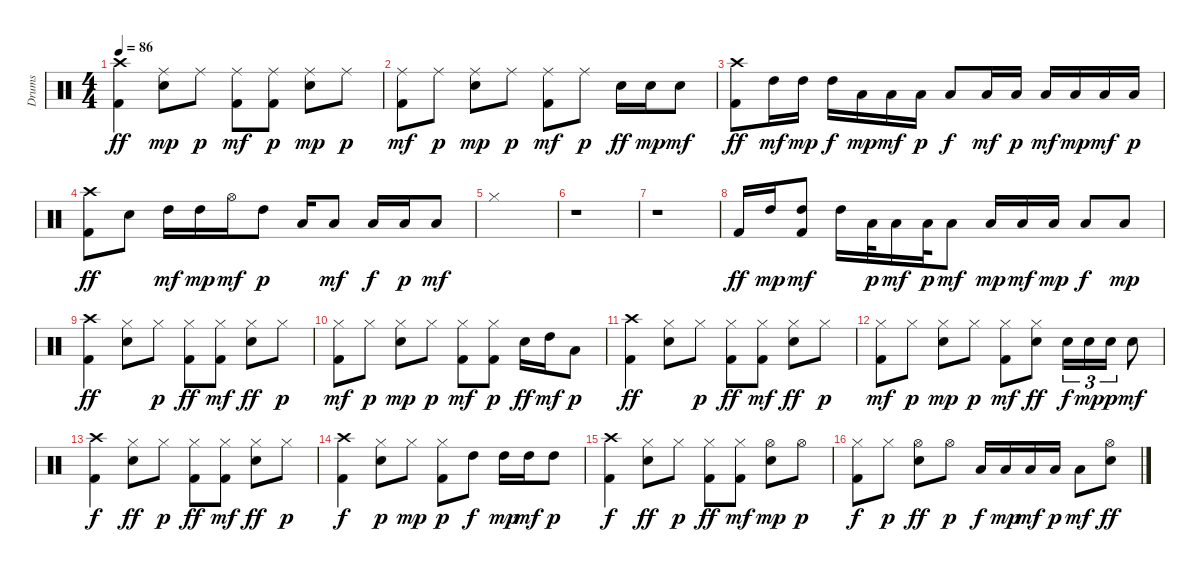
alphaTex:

\track ("Drums" "Drums") {instrument percussion}
\staff {score}
\articulation defaults
\ts (4 4)
\tempo 86
\clef neutral
\ks c
("Kick (hit) 2" "Crash high (hit)").4{dy ff} ("Snare (hit) 2" "Ride (middle)").8{dy mp} "Ride (middle)".8{dy p} ("Kick (hit) 2" "Ride (middle)").8{dy mf} ("Kick (hit) 2" "Ride (middle)").8{dy p} ("Snare (hit) 2" "Ride (middle)").8{dy mp} "Ride (middle)".8{dy p} |
("Kick (hit) 2" "Ride (middle)").8{dy mf} "Ride (middle)".8{dy p} ("Snare (hit) 2" "Ride (middle)").8{dy mp} "Ride (middle)".8{dy p} ("Kick (hit) 2" "Ride (middle)").8{dy mf} "Ride (middle)".8{dy p} "Snare (hit) 2".16{dy ff} "Snare (hit) 2".16{dy mp} "Snare (hit) 2".8{dy mf} |
("Kick (hit) 2" "Crash high (hit)").8{dy ff} "High Tom (hit)".16{dy mf} "High Tom (hit)".16{dy mp} "High Tom (hit)".16{dy f} "Low Tom (hit)".16{dy mp} "Low Tom (hit)".16{dy mf} "Low Tom (hit)".16{dy p} "Low Tom (hit)".8{dy f} "Low Floor Tom (hit)".16{dy mf} "Low Floor Tom (hit)".16{dy p} "Low Floor Tom (hit)".16{dy mf} "Low Floor Tom (hit)".16{dy mp} "Low Floor Tom (hit)".16{dy mf} "Low Floor Tom (hit)".16{dy p} |
("Kick (hit) 2" "Crash high (hit)").8{dy ff} "Snare (hit) 2".8 "High Tom (hit)".16{dy mf} "High Tom (hit)".16{dy mp} "Hi-Hat (open)".16{dy mf} "High Tom (hit)".8{dy p} "Low Tom (hit)".16 "Low Tom (hit)".8{dy mf} "Low Floor Tom (hit)".16{dy f} "Low Floor Tom (hit)".16{dy p} "Low Floor Tom (hit)".8{dy mf} |
"Hi-Hat (closed)".1 |
r.1 |
r.1 |
"Kick (hit) 2".16{dy ff} "High Tom (hit)".16{dy mp} ("Kick (hit) 2" "High Tom (hit)").8{dy mf} "High Tom (hit)".16 "Low Tom (hit)".32{dy p} "Low Tom (hit)".16{dy mf} "Low Tom (hit)".32{dy p} "Low Tom (hit)".8{dy mf} "Low Floor Tom (hit)".16{dy mp} "Low Floor Tom (hit)".16{dy mf} "Low Floor Tom (hit)".16{dy mp} "Low Floor Tom (hit)".8{dy f} "Low Floor Tom (hit)".8{dy mp} |
("Kick (hit) 2" "Crash high (hit)").4{dy ff} ("Hi-Hat (closed)" "Snare (hit) 2").8 "Hi-Hat (closed)".8{dy p} ("Hi-Hat (closed)" "Kick (hit) 2").8{dy ff} ("Hi-Hat (closed)" "Kick (hit) 2").8{dy mf} ("Hi-Hat (closed)" "Snare (hit) 2").8{dy ff} "Hi-Hat (closed)".8{dy p} |
("Kick (hit) 2" "Hi-Hat (closed)").8{dy mf} "Hi-Hat (closed)".8{dy p} ("Snare (hit) 2" "Hi-Hat (closed)").8{dy mp} "Hi-Hat (closed)".8{dy p} ("Kick (hit) 2" "Hi-Hat (closed)").8{dy mf} ("Kick (hit) 2" "Hi-Hat (closed)").8{dy p} "Snare (hit) 2".16{dy ff} "High Tom (hit)".16{dy mf} "Low Tom (hit)".8{dy p} |
("Kick (hit) 2" "Crash high (hit)").4{dy ff} ("Hi-Hat (closed)" "Snare (hit) 2").8 "Hi-Hat (closed)".8{dy p} ("Hi-Hat (closed)" "Kick (hit) 2").8{dy ff} ("Hi-Hat (closed)" "Kick (hit) 2").8{dy mf} ("Hi-Hat (closed)" "Snare (hit) 2").8{dy ff} "Hi-Hat (closed)".8{dy p} |
("Kick (hit) 2" "Hi-Hat (closed)").8{dy mf} "Hi-Hat (closed)".8{dy p} ("Snare (hit) 2" "Hi-Hat (closed)").8{dy mp} "Hi-Hat (closed)".8{dy p} ("Kick (hit) 2" "Hi-Hat (closed)").8{dy mf} ("Hi-Hat (closed)" "Snare (hit) 2").8{dy ff} "Snare (hit) 2".16{tu (3 2) dy f} "Snare (hit) 2".16{tu (3 2) dy mp} "Snare (hit) 2".16{tu (3 2) dy p} "Snare (hit) 2".8{dy mf} |
("Kick (hit) 2" "Crash high (hit)").4{dy f} ("Hi-Hat (closed)" "Snare (hit) 2").8{dy ff} "Hi-Hat (closed)".8{dy p} ("Hi-Hat (closed)" "Kick (hit) 2").8{dy ff} ("Hi-Hat (closed)" "Kick (hit) 2").8{dy mf} ("Hi-Hat (closed)" "Snare (hit) 2").8{dy ff} "Hi-Hat (closed)".8{dy p} |
("Kick (hit) 2" "Crash high (hit)").4{dy f} ("Snare (hit) 2" "Hi-Hat (closed)").8{dy p} "Hi-Hat (closed)".8{dy mp} ("Kick (hit) 2" "Hi-Hat (closed)").8{dy p} "High Tom (hit)".8{dy f} "High Tom (hit)".16{dy mp} "High Tom (hit)".16{dy mf} "High Tom (hit)".8{dy p} |
("Kick (hit) 2" "Crash high (hit)").4{dy f} ("Hi-Hat (closed)" "Snare (hit) 2").8{dy ff} "Hi-Hat (closed)".8{dy p} ("Hi-Hat (closed)" "Kick (hit) 2").8{dy ff} ("Hi-Hat (closed)" "Kick (hit) 2").8{dy mf} ("Snare (hit) 2" "Hi-Hat (open)").8{dy mp} "Hi-Hat (open)".8{dy p} |
("Hi-Hat (closed)" "Kick (hit) 2").8{dy f} "Hi-Hat (closed)".8{dy p} ("Hi-Hat (open)" "Snare (hit) 2").8{dy ff} "Hi-Hat (open)".8{dy p} "Low Tom (hit)".16{dy f} "Low Tom (hit)".16{dy mp} "Low Tom (hit)".16{dy mf} "Low Floor Tom (hit)".16{dy p} "Low Floor Tom (hit)".8{dy mf} ("Hi-Hat (open)" "Snare (hit) 2").8{dy ff}
